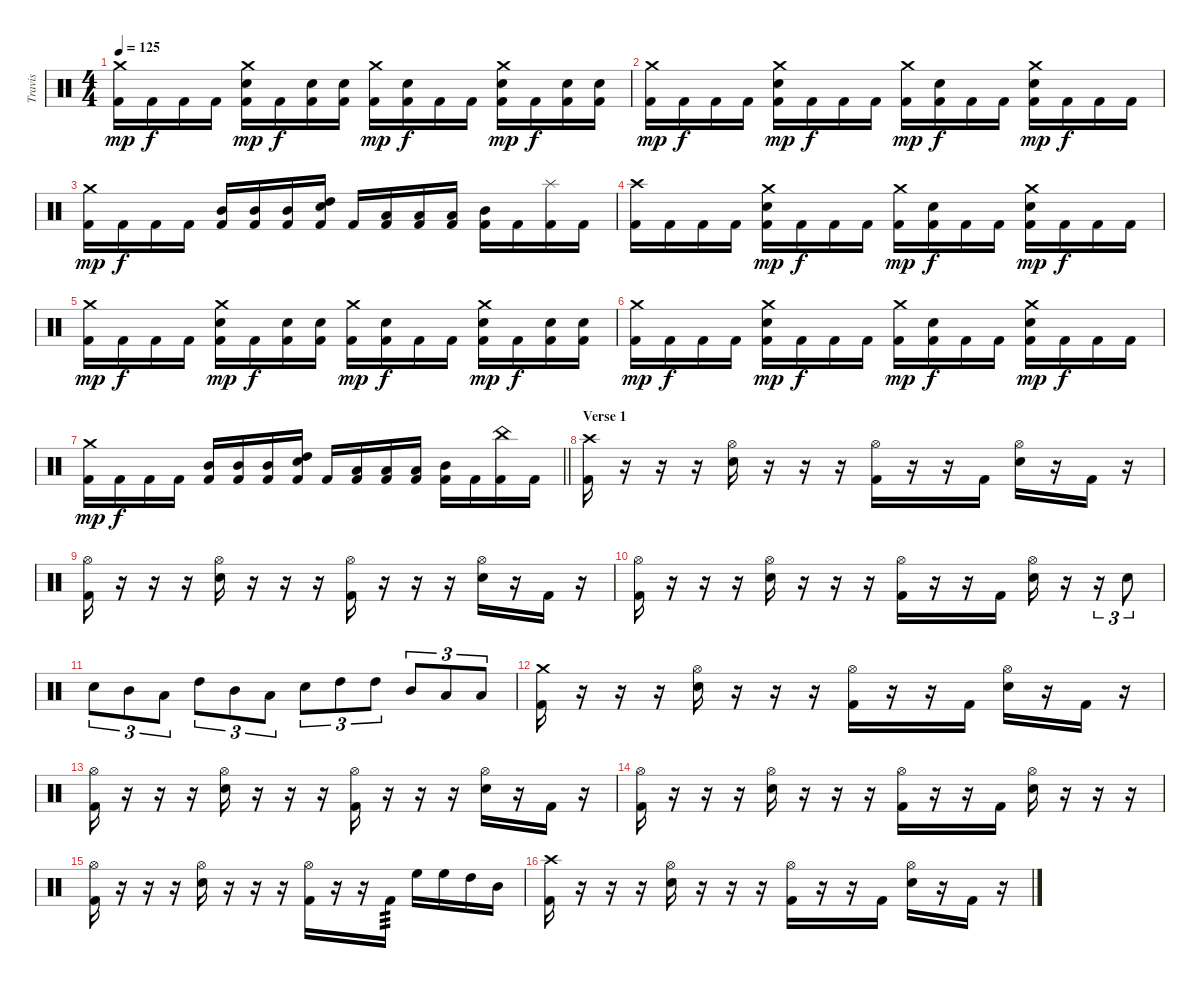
\track ("Travis" "Travis") {instrument percussion}
\staff {score}
\articulation defaults
\ts (4 4)
\tempo 125
\clef neutral
\ks c
("Crash medium (hit)" "Kick (hit) 2").16{dy mp} "Kick (hit) 2".16{dy f} "Kick (hit) 2".16 "Kick (hit) 2".16 ("Crash medium (hit)" "Electric Snare (hit)" "Kick (hit) 2").16{dy mp} "Kick (hit) 2".16{dy f} ("Electric Snare (hit)" "Kick (hit) 2").16 ("Electric Snare (hit)" "Kick (hit) 2").16 ("Crash medium (hit)" "Kick (hit) 2").16{dy mp} ("Electric Snare (hit)" "Kick (hit) 2").16{dy f} "Kick (hit) 2".16 "Kick (hit) 2".16 ("Crash medium (hit)" "Electric Snare (hit)" "Kick (hit) 2").16{dy mp} "Kick (hit) 2".16{dy f} ("Electric Snare (hit)" "Kick (hit) 2").16 ("Electric Snare (hit)" "Kick (hit) 2").16 |
("Crash medium (hit)" "Kick (hit) 2").16{dy mp} "Kick (hit) 2".16{dy f} "Kick (hit) 2".16 "Kick (hit) 2".16 ("Crash medium (hit)" "Electric Snare (hit)" "Kick (hit) 2").16{dy mp} "Kick (hit) 2".16{dy f} "Kick (hit) 2".16 "Kick (hit) 2".16 ("Crash medium (hit)" "Kick (hit) 2").16{dy mp} ("Electric Snare (hit)" "Kick (hit) 2").16{dy f} "Kick (hit) 2".16 "Kick (hit) 2".16 ("Crash medium (hit)" "Electric Snare (hit)" "Kick (hit) 2").16{dy mp} "Kick (hit) 2".16{dy f} "Kick (hit) 2".16 "Kick (hit) 2".16 |
("Crash medium (hit)" "Kick (hit) 2").16{dy mp} "Kick (hit) 2".16{dy f} "Kick (hit) 2".16 "Kick (hit) 2".16 ("Mid Tom (hit)" "Kick (hit) 2").16 ("Mid Tom (hit)" "Kick (hit) 2").16 ("Mid Tom (hit)" "Kick (hit) 2").16 ("Electric Snare (hit)" "High Tom (hit)" "Kick (hit) 2").16 "Kick (hit) 2".16 ("Low Tom (hit)" "Kick (hit) 2").16 ("Low Tom (hit)" "Kick (hit) 2").16 ("Low Tom (hit)" "Kick (hit) 2").16 ("Mid Tom (hit)" "Kick (hit) 2").16 "Kick (hit) 2".16 ("Splash (hit)" "Kick (hit) 2").16 "Kick (hit) 2".16 |
("Crash high (hit)" "Kick (hit) 2").16 "Kick (hit) 2".16 "Kick (hit) 2".16 "Kick (hit) 2".16 ("Crash medium (hit)" "Electric Snare (hit)" "Kick (hit) 2").16{dy mp} "Kick (hit) 2".16{dy f} "Kick (hit) 2".16 "Kick (hit) 2".16 ("Crash medium (hit)" "Kick (hit) 2").16{dy mp} ("Electric Snare (hit)" "Kick (hit) 2").16{dy f} "Kick (hit) 2".16 "Kick (hit) 2".16 ("Crash medium (hit)" "Electric Snare (hit)" "Kick (hit) 2").16{dy mp} "Kick (hit) 2".16{dy f} "Kick (hit) 2".16 "Kick (hit) 2".16 |
("Crash medium (hit)" "Kick (hit) 2").16{dy mp} "Kick (hit) 2".16{dy f} "Kick (hit) 2".16 "Kick (hit) 2".16 ("Crash medium (hit)" "Electric Snare (hit)" "Kick (hit) 2").16{dy mp} "Kick (hit) 2".16{dy f} ("Electric Snare (hit)" "Kick (hit) 2").16 ("Electric Snare (hit)" "Kick (hit) 2").16 ("Crash medium (hit)" "Kick (hit) 2").16{dy mp} ("Electric Snare (hit)" "Kick (hit) 2").16{dy f} "Kick (hit) 2".16 "Kick (hit) 2".16 ("Crash medium (hit)" "Electric Snare (hit)" "Kick (hit) 2").16{dy mp} "Kick (hit) 2".16{dy f} ("Electric Snare (hit)" "Kick (hit) 2").16 ("Electric Snare (hit)" "Kick (hit) 2").16 |
("Crash medium (hit)" "Kick (hit) 2").16{dy mp} "Kick (hit) 2".16{dy f} "Kick (hit) 2".16 "Kick (hit) 2".16 ("Crash medium (hit)" "Electric Snare (hit)" "Kick (hit) 2").16{dy mp} "Kick (hit) 2".16{dy f} "Kick (hit) 2".16 "Kick (hit) 2".16 ("Crash medium (hit)" "Kick (hit) 2").16{dy mp} ("Electric Snare (hit)" "Kick (hit) 2").16{dy f} "Kick (hit) 2".16 "Kick (hit) 2".16 ("Crash medium (hit)" "Electric Snare (hit)" "Kick (hit) 2").16{dy mp} "Kick (hit) 2".16{dy f} "Kick (hit) 2".16 "Kick (hit) 2".16 |
\barLineRight lightlight
("Crash medium (hit)" "Kick (hit) 2").16{dy mp} "Kick (hit) 2".16{dy f} "Kick (hit) 2".16 "Kick (hit) 2".16 ("Mid Tom (hit)" "Kick (hit) 2").16 ("Mid Tom (hit)" "Kick (hit) 2").16 ("Mid Tom (hit)" "Kick (hit) 2").16 ("Electric Snare (hit)" "High Tom (hit)" "Kick (hit) 2").16 "Kick (hit) 2".16 ("Low Tom (hit)" "Kick (hit) 2").16 ("Low Tom (hit)" "Kick (hit) 2").16 ("Low Tom (hit)" "Kick (hit) 2").16 ("Mid Tom (hit)" "Kick (hit) 2").16 "Kick (hit) 2".16 ("China (hit)" "Kick (hit) 2").16 "Kick (hit) 2".16 |
\section ("" "Verse 1")
("Kick (hit) 2" "Crash high (hit)").16 r.16 r.16 r.16 ("Electric Snare (hit)" "Hi-Hat (open)").16 r.16 r.16 r.16 ("Kick (hit) 2" "Hi-Hat (open)").16 r.16 r.16 "Kick (hit) 2".16 ("Electric Snare (hit)" "Hi-Hat (open)").16 r.16 "Kick (hit) 2".16 r.16 |
("Kick (hit) 2" "Hi-Hat (open)").16 r.16 r.16 r.16 ("Electric Snare (hit)" "Hi-Hat (open)").16 r.16 r.16 r.16 ("Kick (hit) 2" "Hi-Hat (open)").16 r.16 r.16 r.16 ("Electric Snare (hit)" "Hi-Hat (open)").16 r.16 "Kick (hit) 2".16 r.16 |
("Kick (hit) 2" "Hi-Hat (open)").16 r.16 r.16 r.16 ("Electric Snare (hit)" "Hi-Hat (open)").16 r.16 r.16 r.16 ("Kick (hit) 2" "Hi-Hat (open)").16 r.16 r.16 "Kick (hit) 2".16 ("Electric Snare (hit)" "Hi-Hat (open)").16 r.16 r.16{tu (3 2)} "Electric Snare (hit)".8{tu (3 2)} |
"Electric Snare (hit)".8{tu (3 2)} "Mid Tom (hit)".8{tu (3 2)} "Low Tom (hit)".8{tu (3 2)} "High Tom (hit)".8{tu (3 2)} "Mid Tom (hit)".8{tu (3 2)} "Low Tom (hit)".8{tu (3 2)} "Electric Snare (hit)".8{tu (3 2)} "High Tom (hit)".8{tu (3 2)} "High Tom (hit)".8{tu (3 2)} "Mid Tom (hit)".8{tu (3 2)} "Low Tom (hit)".8{tu (3 2)} "Low Floor Tom (hit)".8{tu (3 2)} |
("Kick (hit) 2" "Crash medium (hit)").16 r.16 r.16 r.16 ("Electric Snare (hit)" "Hi-Hat (open)").16 r.16 r.16 r.16 ("Kick (hit) 2" "Hi-Hat (open)").16 r.16 r.16 "Kick (hit) 2".16 ("Electric Snare (hit)" "Hi-Hat (open)").16 r.16 "Kick (hit) 2".16 r.16 |
("Kick (hit) 2" "Hi-Hat (open)").16 r.16 r.16 r.16 ("Electric Snare (hit)" "Hi-Hat (open)").16 r.16 r.16 r.16 ("Kick (hit) 2" "Hi-Hat (open)").16 r.16 r.16 r.16 ("Electric Snare (hit)" "Hi-Hat (open)").16 r.16 "Kick (hit) 2".16 r.16 |
("Kick (hit) 2" "Hi-Hat (open)").16 r.16 r.16 r.16 ("Electric Snare (hit)" "Hi-Hat (open)").16 r.16 r.16 r.16 ("Kick (hit) 2" "Hi-Hat (open)").16 r.16 r.16 "Kick (hit) 2".16 ("Electric Snare (hit)" "Hi-Hat (open)").16 r.16 r.16 r.16 |
("Kick (hit) 2" "Hi-Hat (open)").16 r.16 r.16 r.16 ("Electric Snare (hit)" "Hi-Hat (open)").16 r.16 r.16 r.16 ("Kick (hit) 2" "Hi-Hat (open)").16 r.16 r.16 "Kick (hit) 2".16{tp 3} "High Floor Tom (hit)".16 "High Floor Tom (hit)".16 "High Tom (hit)".16 "Mid Tom (hit)".16 |
("Kick (hit) 2" "Crash high (hit)").16 r.16 r.16 r.16 ("Electric Snare (hit)" "Hi-Hat (open)").16 r.16 r.16 r.16 ("Kick (hit) 2" "Hi-Hat (open)").16 r.16 r.16 "Kick (hit) 2".16 ("Electric Snare (hit)" "Hi-Hat (open)").16 r.16 "Kick (hit) 2".16 r.16
